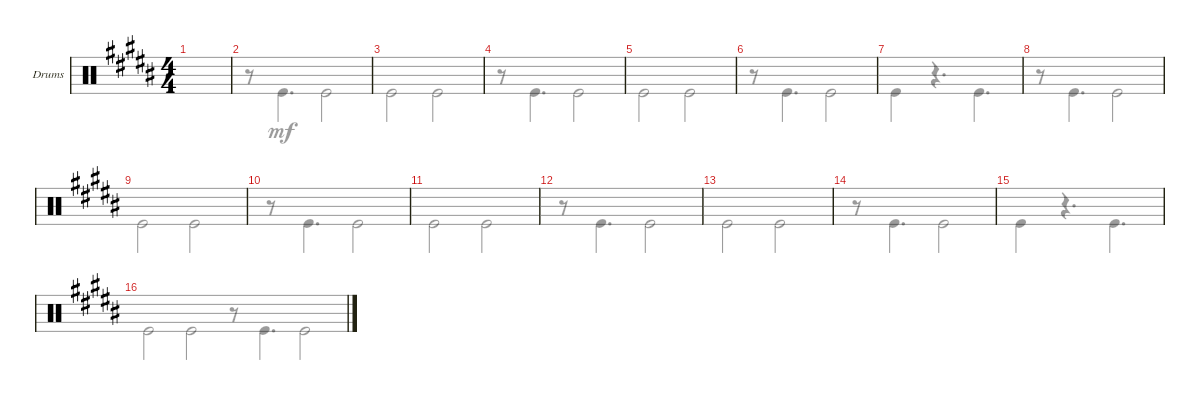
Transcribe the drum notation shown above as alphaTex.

\defaultSystemsLayout 4
\bracketExtendMode groupsimilarinstruments
\firstSystemTrackNameOrientation horizontal
\otherSystemsTrackNameOrientation horizontal
\track ("Drumkit" "Drums") {instrument percussion}
\staff {score}
\articulation defaults
\voice
\ts (4 4)
\scale
0.522117
\tempo (120 hide)
\accidentals auto
\clef neutral
\ottava regular
\simile none
\scale
0.333333
\ks b
|
\scale
0.478264 |
\scale
0.527143 |
\scale
0.472934 |
\scale
0.522857 |
\scale
0.477208 |
\scale
0.522454 |
\scale
0.477692 |
\scale
0.505026
\scale
0.333333 |
\scale
0.495411 |
\scale
0.511429 |
\scale
0.488604 |
\scale
0.5 |
\scale
0.5 |
\scale
0.526737 |
\scale
0.473414
\voice
\clef neutral
\ottava regular
\simile none
\scale
0.333333
\ks b "Kick (hit)".2{dy mf} "Kick (hit)".2
|
r.8 "Kick (hit)".4{d} "Kick (hit)".2 |
"Kick (hit)".2 "Kick (hit)".2 |
r.8 "Kick (hit)".4{d} "Kick (hit)".2 |
"Kick (hit)".2 "Kick (hit)".2 |
r.8 "Kick (hit)".4{d} "Kick (hit)".2 |
"Kick (hit)".4 r.4{d} "Kick (hit)".4{d} |
r.8 "Kick (hit)".4{d} "Kick (hit)".2 |
\scale
0.333333 "Kick (hit)".2 "Kick (hit)".2 |
r.8 "Kick (hit)".4{d} "Kick (hit)".2 |
"Kick (hit)".2 "Kick (hit)".2 |
r.8 "Kick (hit)".4{d} "Kick (hit)".2 |
"Kick (hit)".2 "Kick (hit)".2 |
r.8 "Kick (hit)".4{d} "Kick (hit)".2 |
"Kick (hit)".4 r.4{d} "Kick (hit)".4{d} |
r.8 "Kick (hit)".4{d} "Kick (hit)".2
